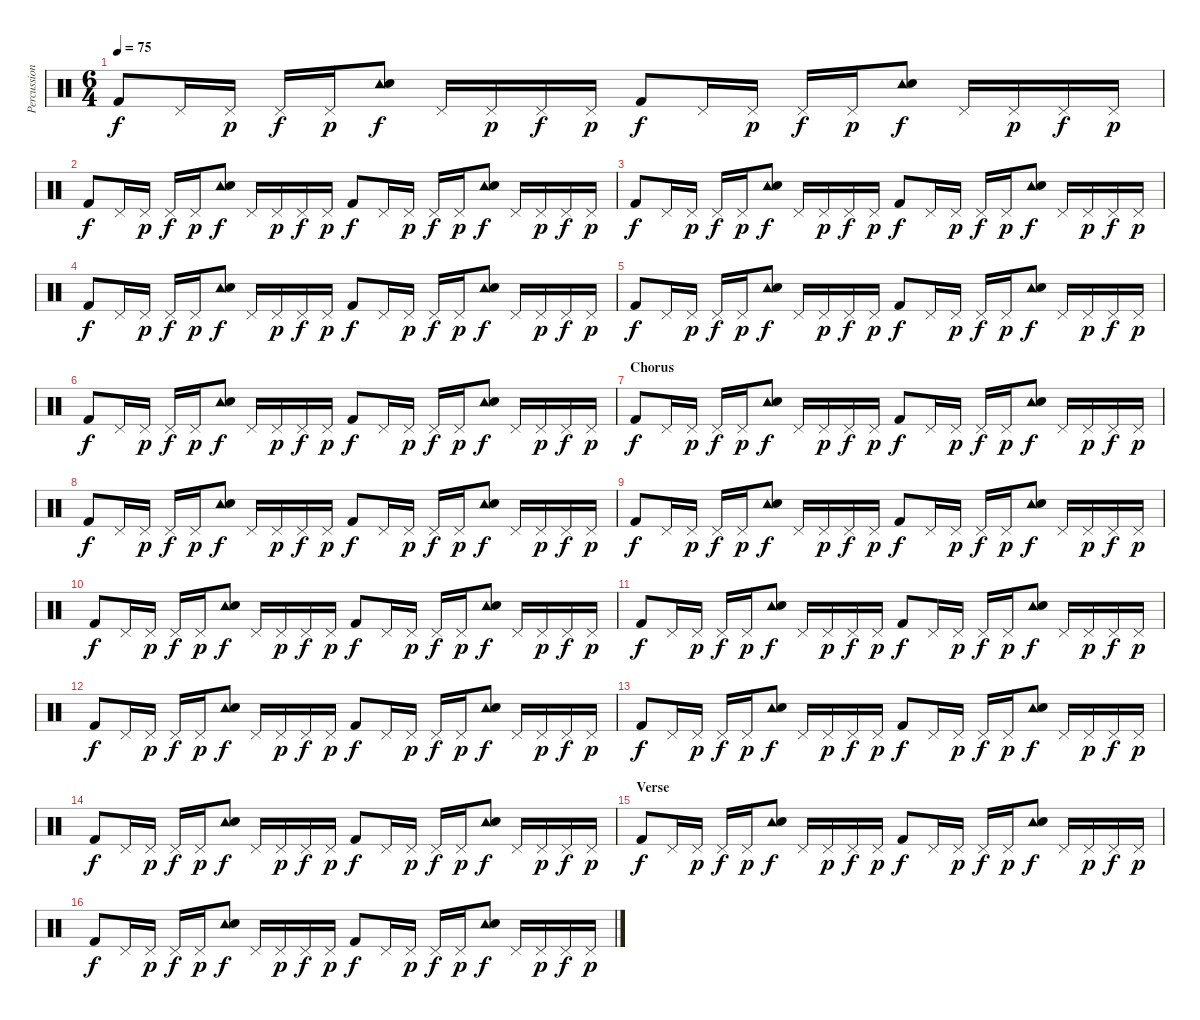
\track ("Percussion" "Percussion") {instrument percussion}
\staff {score}
\articulation defaults
\ts (6 4)
\tempo 75
\clef neutral
\ks c "Kick (hit) 2".8{dy f} "Pedal Hi-Hat (hit)".16 "Pedal Hi-Hat (hit)".16{dy p} "Pedal Hi-Hat (hit)".16{dy f} "Pedal Hi-Hat (hit)".16{dy p}
("Tambourine (hit)" "Snare (hit) 2").8{dy f} "Pedal Hi-Hat (hit)".16 "Pedal Hi-Hat (hit)".16{dy p} "Pedal Hi-Hat (hit)".16{dy f} "Pedal Hi-Hat (hit)".16{dy p} "Kick (hit) 2".8{dy f} "Pedal Hi-Hat (hit)".16 "Pedal Hi-Hat (hit)".16{dy p} "Pedal Hi-Hat (hit)".16{dy f} "Pedal Hi-Hat (hit)".16{dy p} ("Tambourine (hit)" "Snare (hit) 2").8{dy f} "Pedal Hi-Hat (hit)".16 "Pedal Hi-Hat (hit)".16{dy p} "Pedal Hi-Hat (hit)".16{dy f} "Pedal Hi-Hat (hit)".16{dy p} |
"Kick (hit) 2".8{dy f} "Pedal Hi-Hat (hit)".16 "Pedal Hi-Hat (hit)".16{dy p} "Pedal Hi-Hat (hit)".16{dy f} "Pedal Hi-Hat (hit)".16{dy p} ("Tambourine (hit)" "Snare (hit) 2").8{dy f} "Pedal Hi-Hat (hit)".16 "Pedal Hi-Hat (hit)".16{dy p} "Pedal Hi-Hat (hit)".16{dy f} "Pedal Hi-Hat (hit)".16{dy p} "Kick (hit) 2".8{dy f} "Pedal Hi-Hat (hit)".16 "Pedal Hi-Hat (hit)".16{dy p} "Pedal Hi-Hat (hit)".16{dy f} "Pedal Hi-Hat (hit)".16{dy p} ("Tambourine (hit)" "Snare (hit) 2").8{dy f} "Pedal Hi-Hat (hit)".16 "Pedal Hi-Hat (hit)".16{dy p} "Pedal Hi-Hat (hit)".16{dy f} "Pedal Hi-Hat (hit)".16{dy p} |
"Kick (hit) 2".8{dy f} "Pedal Hi-Hat (hit)".16 "Pedal Hi-Hat (hit)".16{dy p} "Pedal Hi-Hat (hit)".16{dy f} "Pedal Hi-Hat (hit)".16{dy p} ("Tambourine (hit)" "Snare (hit) 2").8{dy f} "Pedal Hi-Hat (hit)".16 "Pedal Hi-Hat (hit)".16{dy p} "Pedal Hi-Hat (hit)".16{dy f} "Pedal Hi-Hat (hit)".16{dy p} "Kick (hit) 2".8{dy f} "Pedal Hi-Hat (hit)".16 "Pedal Hi-Hat (hit)".16{dy p} "Pedal Hi-Hat (hit)".16{dy f} "Pedal Hi-Hat (hit)".16{dy p} ("Tambourine (hit)" "Snare (hit) 2").8{dy f} "Pedal Hi-Hat (hit)".16 "Pedal Hi-Hat (hit)".16{dy p} "Pedal Hi-Hat (hit)".16{dy f} "Pedal Hi-Hat (hit)".16{dy p} |
"Kick (hit) 2".8{dy f} "Pedal Hi-Hat (hit)".16 "Pedal Hi-Hat (hit)".16{dy p} "Pedal Hi-Hat (hit)".16{dy f} "Pedal Hi-Hat (hit)".16{dy p} ("Tambourine (hit)" "Snare (hit) 2").8{dy f} "Pedal Hi-Hat (hit)".16 "Pedal Hi-Hat (hit)".16{dy p} "Pedal Hi-Hat (hit)".16{dy f} "Pedal Hi-Hat (hit)".16{dy p} "Kick (hit) 2".8{dy f} "Pedal Hi-Hat (hit)".16 "Pedal Hi-Hat (hit)".16{dy p} "Pedal Hi-Hat (hit)".16{dy f} "Pedal Hi-Hat (hit)".16{dy p} ("Tambourine (hit)" "Snare (hit) 2").8{dy f} "Pedal Hi-Hat (hit)".16 "Pedal Hi-Hat (hit)".16{dy p} "Pedal Hi-Hat (hit)".16{dy f} "Pedal Hi-Hat (hit)".16{dy p} |
"Kick (hit) 2".8{dy f} "Pedal Hi-Hat (hit)".16 "Pedal Hi-Hat (hit)".16{dy p} "Pedal Hi-Hat (hit)".16{dy f} "Pedal Hi-Hat (hit)".16{dy p} ("Tambourine (hit)" "Snare (hit) 2").8{dy f} "Pedal Hi-Hat (hit)".16 "Pedal Hi-Hat (hit)".16{dy p} "Pedal Hi-Hat (hit)".16{dy f} "Pedal Hi-Hat (hit)".16{dy p} "Kick (hit) 2".8{dy f} "Pedal Hi-Hat (hit)".16 "Pedal Hi-Hat (hit)".16{dy p} "Pedal Hi-Hat (hit)".16{dy f} "Pedal Hi-Hat (hit)".16{dy p} ("Tambourine (hit)" "Snare (hit) 2").8{dy f} "Pedal Hi-Hat (hit)".16 "Pedal Hi-Hat (hit)".16{dy p} "Pedal Hi-Hat (hit)".16{dy f} "Pedal Hi-Hat (hit)".16{dy p} |
"Kick (hit) 2".8{dy f} "Pedal Hi-Hat (hit)".16 "Pedal Hi-Hat (hit)".16{dy p} "Pedal Hi-Hat (hit)".16{dy f} "Pedal Hi-Hat (hit)".16{dy p} ("Tambourine (hit)" "Snare (hit) 2").8{dy f} "Pedal Hi-Hat (hit)".16 "Pedal Hi-Hat (hit)".16{dy p} "Pedal Hi-Hat (hit)".16{dy f} "Pedal Hi-Hat (hit)".16{dy p} "Kick (hit) 2".8{dy f} "Pedal Hi-Hat (hit)".16 "Pedal Hi-Hat (hit)".16{dy p} "Pedal Hi-Hat (hit)".16{dy f} "Pedal Hi-Hat (hit)".16{dy p} ("Tambourine (hit)" "Snare (hit) 2").8{dy f} "Pedal Hi-Hat (hit)".16 "Pedal Hi-Hat (hit)".16{dy p} "Pedal Hi-Hat (hit)".16{dy f} "Pedal Hi-Hat (hit)".16{dy p} |
\section ("" "Chorus")
"Kick (hit) 2".8{dy f} "Pedal Hi-Hat (hit)".16 "Pedal Hi-Hat (hit)".16{dy p} "Pedal Hi-Hat (hit)".16{dy f} "Pedal Hi-Hat (hit)".16{dy p} ("Tambourine (hit)" "Snare (hit) 2").8{dy f} "Pedal Hi-Hat (hit)".16 "Pedal Hi-Hat (hit)".16{dy p} "Pedal Hi-Hat (hit)".16{dy f} "Pedal Hi-Hat (hit)".16{dy p} "Kick (hit) 2".8{dy f} "Pedal Hi-Hat (hit)".16 "Pedal Hi-Hat (hit)".16{dy p} "Pedal Hi-Hat (hit)".16{dy f} "Pedal Hi-Hat (hit)".16{dy p} ("Tambourine (hit)" "Snare (hit) 2").8{dy f} "Pedal Hi-Hat (hit)".16 "Pedal Hi-Hat (hit)".16{dy p} "Pedal Hi-Hat (hit)".16{dy f} "Pedal Hi-Hat (hit)".16{dy p} |
"Kick (hit) 2".8{dy f} "Pedal Hi-Hat (hit)".16 "Pedal Hi-Hat (hit)".16{dy p} "Pedal Hi-Hat (hit)".16{dy f} "Pedal Hi-Hat (hit)".16{dy p} ("Tambourine (hit)" "Snare (hit) 2").8{dy f} "Pedal Hi-Hat (hit)".16 "Pedal Hi-Hat (hit)".16{dy p} "Pedal Hi-Hat (hit)".16{dy f} "Pedal Hi-Hat (hit)".16{dy p} "Kick (hit) 2".8{dy f} "Pedal Hi-Hat (hit)".16 "Pedal Hi-Hat (hit)".16{dy p} "Pedal Hi-Hat (hit)".16{dy f} "Pedal Hi-Hat (hit)".16{dy p} ("Tambourine (hit)" "Snare (hit) 2").8{dy f} "Pedal Hi-Hat (hit)".16 "Pedal Hi-Hat (hit)".16{dy p} "Pedal Hi-Hat (hit)".16{dy f} "Pedal Hi-Hat (hit)".16{dy p} |
"Kick (hit) 2".8{dy f} "Pedal Hi-Hat (hit)".16 "Pedal Hi-Hat (hit)".16{dy p} "Pedal Hi-Hat (hit)".16{dy f} "Pedal Hi-Hat (hit)".16{dy p} ("Tambourine (hit)" "Snare (hit) 2").8{dy f} "Pedal Hi-Hat (hit)".16 "Pedal Hi-Hat (hit)".16{dy p} "Pedal Hi-Hat (hit)".16{dy f} "Pedal Hi-Hat (hit)".16{dy p} "Kick (hit) 2".8{dy f} "Pedal Hi-Hat (hit)".16 "Pedal Hi-Hat (hit)".16{dy p} "Pedal Hi-Hat (hit)".16{dy f} "Pedal Hi-Hat (hit)".16{dy p} ("Tambourine (hit)" "Snare (hit) 2").8{dy f} "Pedal Hi-Hat (hit)".16 "Pedal Hi-Hat (hit)".16{dy p} "Pedal Hi-Hat (hit)".16{dy f} "Pedal Hi-Hat (hit)".16{dy p} |
"Kick (hit) 2".8{dy f} "Pedal Hi-Hat (hit)".16 "Pedal Hi-Hat (hit)".16{dy p} "Pedal Hi-Hat (hit)".16{dy f} "Pedal Hi-Hat (hit)".16{dy p} ("Tambourine (hit)" "Snare (hit) 2").8{dy f} "Pedal Hi-Hat (hit)".16 "Pedal Hi-Hat (hit)".16{dy p} "Pedal Hi-Hat (hit)".16{dy f} "Pedal Hi-Hat (hit)".16{dy p} "Kick (hit) 2".8{dy f} "Pedal Hi-Hat (hit)".16 "Pedal Hi-Hat (hit)".16{dy p} "Pedal Hi-Hat (hit)".16{dy f} "Pedal Hi-Hat (hit)".16{dy p} ("Tambourine (hit)" "Snare (hit) 2").8{dy f} "Pedal Hi-Hat (hit)".16 "Pedal Hi-Hat (hit)".16{dy p} "Pedal Hi-Hat (hit)".16{dy f} "Pedal Hi-Hat (hit)".16{dy p} |
"Kick (hit) 2".8{dy f} "Pedal Hi-Hat (hit)".16 "Pedal Hi-Hat (hit)".16{dy p} "Pedal Hi-Hat (hit)".16{dy f} "Pedal Hi-Hat (hit)".16{dy p} ("Tambourine (hit)" "Snare (hit) 2").8{dy f} "Pedal Hi-Hat (hit)".16 "Pedal Hi-Hat (hit)".16{dy p} "Pedal Hi-Hat (hit)".16{dy f} "Pedal Hi-Hat (hit)".16{dy p} "Kick (hit) 2".8{dy f} "Pedal Hi-Hat (hit)".16 "Pedal Hi-Hat (hit)".16{dy p} "Pedal Hi-Hat (hit)".16{dy f} "Pedal Hi-Hat (hit)".16{dy p} ("Tambourine (hit)" "Snare (hit) 2").8{dy f} "Pedal Hi-Hat (hit)".16 "Pedal Hi-Hat (hit)".16{dy p} "Pedal Hi-Hat (hit)".16{dy f} "Pedal Hi-Hat (hit)".16{dy p} |
"Kick (hit) 2".8{dy f} "Pedal Hi-Hat (hit)".16 "Pedal Hi-Hat (hit)".16{dy p} "Pedal Hi-Hat (hit)".16{dy f} "Pedal Hi-Hat (hit)".16{dy p} ("Tambourine (hit)" "Snare (hit) 2").8{dy f} "Pedal Hi-Hat (hit)".16 "Pedal Hi-Hat (hit)".16{dy p} "Pedal Hi-Hat (hit)".16{dy f} "Pedal Hi-Hat (hit)".16{dy p} "Kick (hit) 2".8{dy f} "Pedal Hi-Hat (hit)".16 "Pedal Hi-Hat (hit)".16{dy p} "Pedal Hi-Hat (hit)".16{dy f} "Pedal Hi-Hat (hit)".16{dy p} ("Tambourine (hit)" "Snare (hit) 2").8{dy f} "Pedal Hi-Hat (hit)".16 "Pedal Hi-Hat (hit)".16{dy p} "Pedal Hi-Hat (hit)".16{dy f} "Pedal Hi-Hat (hit)".16{dy p} |
"Kick (hit) 2".8{dy f} "Pedal Hi-Hat (hit)".16 "Pedal Hi-Hat (hit)".16{dy p} "Pedal Hi-Hat (hit)".16{dy f} "Pedal Hi-Hat (hit)".16{dy p} ("Tambourine (hit)" "Snare (hit) 2").8{dy f} "Pedal Hi-Hat (hit)".16 "Pedal Hi-Hat (hit)".16{dy p} "Pedal Hi-Hat (hit)".16{dy f} "Pedal Hi-Hat (hit)".16{dy p} "Kick (hit) 2".8{dy f} "Pedal Hi-Hat (hit)".16 "Pedal Hi-Hat (hit)".16{dy p} "Pedal Hi-Hat (hit)".16{dy f} "Pedal Hi-Hat (hit)".16{dy p} ("Tambourine (hit)" "Snare (hit) 2").8{dy f} "Pedal Hi-Hat (hit)".16 "Pedal Hi-Hat (hit)".16{dy p} "Pedal Hi-Hat (hit)".16{dy f} "Pedal Hi-Hat (hit)".16{dy p} |
"Kick (hit) 2".8{dy f} "Pedal Hi-Hat (hit)".16 "Pedal Hi-Hat (hit)".16{dy p} "Pedal Hi-Hat (hit)".16{dy f} "Pedal Hi-Hat (hit)".16{dy p} ("Tambourine (hit)" "Snare (hit) 2").8{dy f} "Pedal Hi-Hat (hit)".16 "Pedal Hi-Hat (hit)".16{dy p} "Pedal Hi-Hat (hit)".16{dy f} "Pedal Hi-Hat (hit)".16{dy p} "Kick (hit) 2".8{dy f} "Pedal Hi-Hat (hit)".16 "Pedal Hi-Hat (hit)".16{dy p} "Pedal Hi-Hat (hit)".16{dy f} "Pedal Hi-Hat (hit)".16{dy p} ("Tambourine (hit)" "Snare (hit) 2").8{dy f} "Pedal Hi-Hat (hit)".16 "Pedal Hi-Hat (hit)".16{dy p} "Pedal Hi-Hat (hit)".16{dy f} "Pedal Hi-Hat (hit)".16{dy p} |
\section ("" "Verse")
"Kick (hit) 2".8{dy f} "Pedal Hi-Hat (hit)".16 "Pedal Hi-Hat (hit)".16{dy p} "Pedal Hi-Hat (hit)".16{dy f} "Pedal Hi-Hat (hit)".16{dy p} ("Tambourine (hit)" "Snare (hit) 2").8{dy f} "Pedal Hi-Hat (hit)".16 "Pedal Hi-Hat (hit)".16{dy p} "Pedal Hi-Hat (hit)".16{dy f} "Pedal Hi-Hat (hit)".16{dy p} "Kick (hit) 2".8{dy f} "Pedal Hi-Hat (hit)".16 "Pedal Hi-Hat (hit)".16{dy p} "Pedal Hi-Hat (hit)".16{dy f} "Pedal Hi-Hat (hit)".16{dy p} ("Tambourine (hit)" "Snare (hit) 2").8{dy f} "Pedal Hi-Hat (hit)".16 "Pedal Hi-Hat (hit)".16{dy p} "Pedal Hi-Hat (hit)".16{dy f} "Pedal Hi-Hat (hit)".16{dy p} |
"Kick (hit) 2".8{dy f} "Pedal Hi-Hat (hit)".16 "Pedal Hi-Hat (hit)".16{dy p} "Pedal Hi-Hat (hit)".16{dy f} "Pedal Hi-Hat (hit)".16{dy p} ("Tambourine (hit)" "Snare (hit) 2").8{dy f} "Pedal Hi-Hat (hit)".16 "Pedal Hi-Hat (hit)".16{dy p} "Pedal Hi-Hat (hit)".16{dy f} "Pedal Hi-Hat (hit)".16{dy p} "Kick (hit) 2".8{dy f} "Pedal Hi-Hat (hit)".16 "Pedal Hi-Hat (hit)".16{dy p} "Pedal Hi-Hat (hit)".16{dy f} "Pedal Hi-Hat (hit)".16{dy p} ("Tambourine (hit)" "Snare (hit) 2").8{dy f} "Pedal Hi-Hat (hit)".16 "Pedal Hi-Hat (hit)".16{dy p} "Pedal Hi-Hat (hit)".16{dy f} "Pedal Hi-Hat (hit)".16{dy p}
